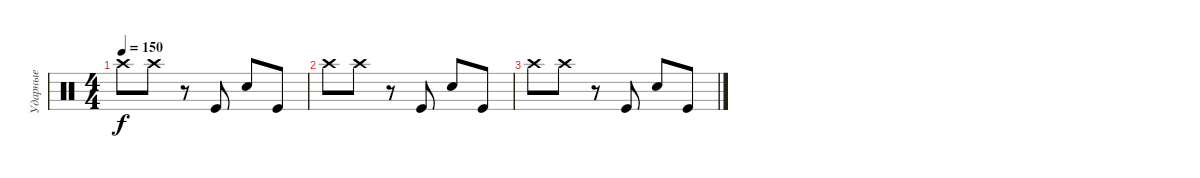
\track ("Ударные" "Ударные") {instrument percussion}
\staff {score}
\articulation defaults
\ts (4 4)
\tempo 150
\clef neutral
\ks c "Crash high (hit)".8{dy f} "Crash high (hit)".8
r.8 "Kick (hit)".8 "Snare (hit) 2".8 "Kick (hit)".8 |
"Crash high (hit)".8 "Crash high (hit)".8 r.8 "Kick (hit)".8 "Snare (hit) 2".8 "Kick (hit)".8 |
"Crash high (hit)".8 "Crash high (hit)".8 r.8 "Kick (hit)".8 "Snare (hit) 2".8 "Kick (hit)".8
